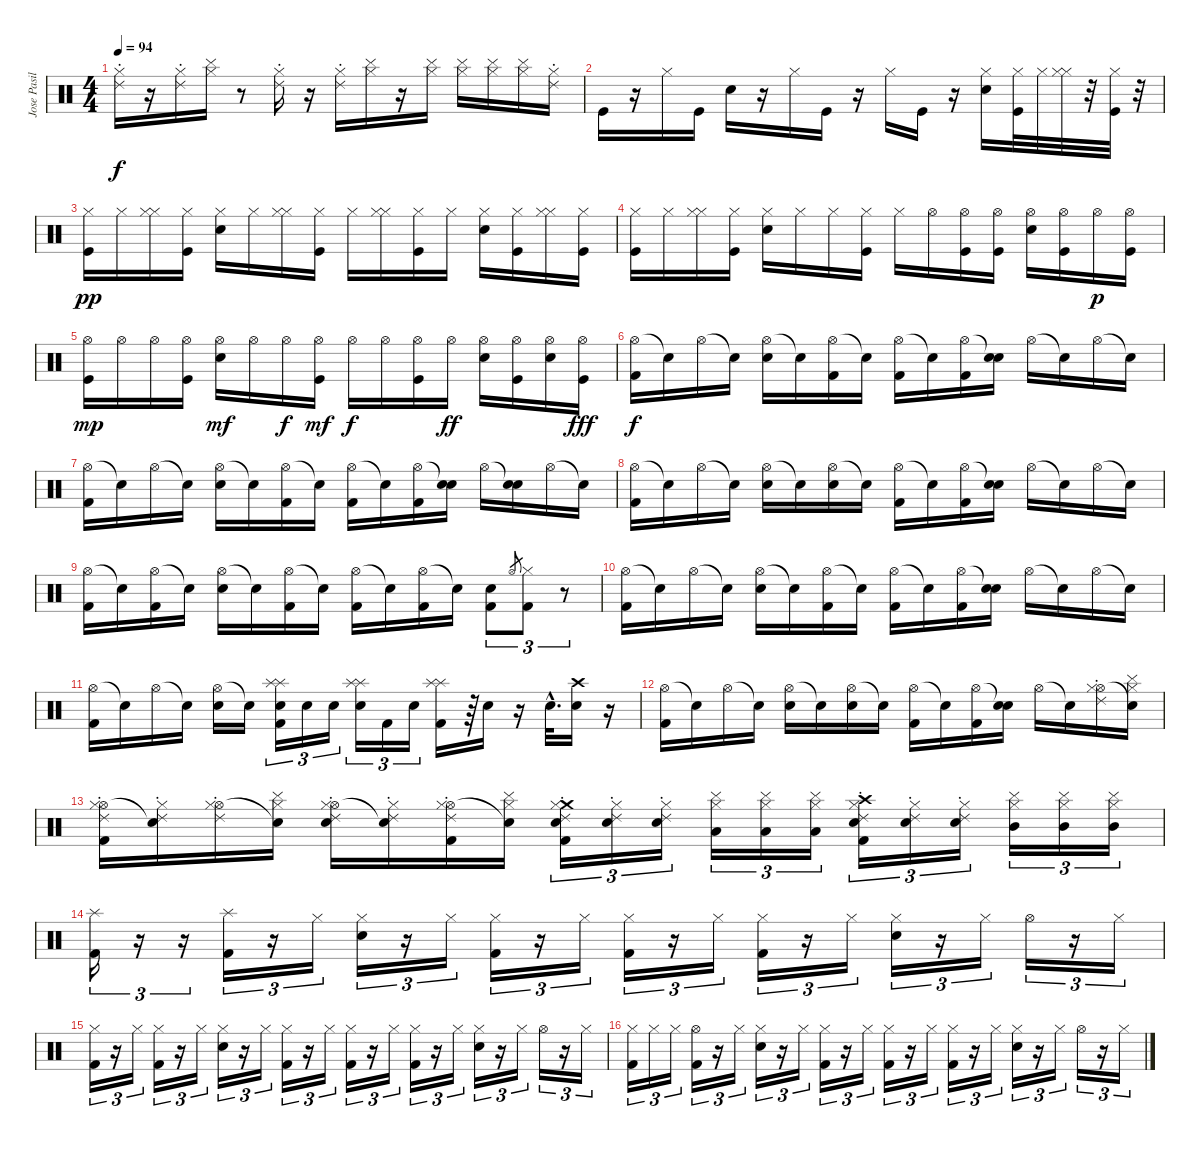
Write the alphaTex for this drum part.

\track ("Jose Pasillas" "Jose Pasil") {instrument percussion}
\staff {score}
\articulation defaults
\ts (4 4)
\tempo 94
\clef neutral
\ks c
("Ride (choke) 2" "Hi-Hat (closed)").16{dy f} r.16 ("Ride (choke) 2" "Hi-Hat (closed)").16 ("Cymbal (hit)" "Hi-Hat (closed)").16 r.8 ("Ride (choke) 2" "Hi-Hat (closed)").16 r.16 ("Ride (choke) 2" "Hi-Hat (closed)").16 ("Cymbal (hit)" "Hi-Hat (closed)").16 r.16 ("Cymbal (hit)" "Hi-Hat (closed)").16 ("Cymbal (hit)" "Hi-Hat (closed)").16 ("Cymbal (hit)" "Hi-Hat (closed)").16 ("Cymbal (hit)" "Hi-Hat (closed)").16 ("Ride (choke) 2" "Hi-Hat (closed)").16 |
"Kick (hit)".16 r.16 "Hi-Hat (closed)".16 "Kick (hit)".16 "Snare (hit) 2".16 r.16 "Hi-Hat (closed)".16 "Kick (hit)".16 r.16 "Hi-Hat (closed)".16 "Kick (hit)".16 r.16 ("Hi-Hat (closed)" "Snare (hit) 2").16 ("Hi-Hat (closed)" "Kick (hit)").32 "Hi-Hat (closed)".32 ("Hi-Hat (closed)" "Hi-Hat (closed)").32 r.32 ("Hi-Hat (closed)" "Kick (hit)").32 r.32 |
("Hi-Hat (closed)" "Kick (hit)").16{dy pp} "Hi-Hat (closed)".16 ("Hi-Hat (closed)" "Hi-Hat (closed)").16 ("Hi-Hat (closed)" "Kick (hit)").16 ("Hi-Hat (closed)" "Snare (hit) 2").16 "Hi-Hat (closed)".16 ("Hi-Hat (closed)" "Hi-Hat (closed)").16 ("Hi-Hat (closed)" "Kick (hit)").16 "Hi-Hat (closed)".16 ("Hi-Hat (closed)" "Hi-Hat (closed)").16 ("Hi-Hat (closed)" "Kick (hit)").16 "Hi-Hat (closed)".16 ("Hi-Hat (closed)" "Snare (hit) 2").16 ("Hi-Hat (closed)" "Kick (hit)").16 ("Hi-Hat (closed)" "Hi-Hat (closed)").16 ("Hi-Hat (closed)" "Kick (hit)").16 |
("Hi-Hat (closed)" "Kick (hit)").16 "Hi-Hat (closed)".16 ("Hi-Hat (closed)" "Hi-Hat (closed)").16 ("Hi-Hat (closed)" "Kick (hit)").16 ("Hi-Hat (closed)" "Snare (hit) 2").16 "Hi-Hat (closed)".16 "Hi-Hat (closed)".16 ("Hi-Hat (closed)" "Kick (hit)").16 "Hi-Hat (closed)".16 "Hi-Hat (open)".16 ("Hi-Hat (open)" "Kick (hit)").16 ("Hi-Hat (open)" "Kick (hit)").16 ("Hi-Hat (open)" "Snare (hit) 2").16 ("Hi-Hat (open)" "Kick (hit)").16 "Hi-Hat (open)".16{dy p} ("Hi-Hat (open)" "Kick (hit)").16 |
("Hi-Hat (open)" "Kick (hit)").16{dy mp} "Hi-Hat (open)".16 "Hi-Hat (open)".16 ("Hi-Hat (open)" "Kick (hit)").16 ("Hi-Hat (open)" "Snare (hit) 2").16{dy mf} "Hi-Hat (open)".16 "Hi-Hat (open)".16{dy f} ("Hi-Hat (open)" "Kick (hit)").16{dy mf} "Hi-Hat (open)".16{dy f} "Hi-Hat (open)".16 ("Hi-Hat (open)" "Kick (hit)").16 "Hi-Hat (open)".16{dy ff} ("Hi-Hat (open)" "Snare (hit) 2").16 ("Hi-Hat (open)" "Kick (hit)").16 ("Hi-Hat (open)" "Snare (hit) 2").16 ("Hi-Hat (open)" "Kick (hit)").16{dy fff} |
("Hi-Hat (open)" "Kick (hit) 2").16{dy f} "Snare (hit)"{t}.16 "Hi-Hat (open)".16 "Snare (hit)"{t}.16 ("Hi-Hat (open)" "Electric Snare (hit)").16 "Snare (hit)"{t}.16 ("Hi-Hat (open)" "Kick (hit) 2").16 "Snare (hit)"{t}.16 ("Hi-Hat (open)" "Kick (hit) 2").16 "Snare (hit)"{t}.16 ("Hi-Hat (open)" "Kick (hit) 2").16 ("Snare (hit)"{t} "Electric Snare (hit)").16 "Hi-Hat (open)".16 "Snare (hit)"{t}.16 "Hi-Hat (open)".16 "Snare (hit)"{t}.16 |
("Hi-Hat (open)" "Kick (hit) 2").16 "Snare (hit)"{t}.16 "Hi-Hat (open)".16 "Snare (hit)"{t}.16 ("Hi-Hat (open)" "Electric Snare (hit)").16 "Snare (hit)"{t}.16 ("Hi-Hat (open)" "Kick (hit) 2").16 "Snare (hit)"{t}.16 ("Hi-Hat (open)" "Kick (hit) 2").16 "Snare (hit)"{t}.16 ("Hi-Hat (open)" "Kick (hit) 2").16 ("Snare (hit)"{t} "Electric Snare (hit)").16 "Hi-Hat (open)".16 ("Snare (hit)"{t} "Electric Snare (hit)").16 "Hi-Hat (open)".16 "Snare (hit)"{t}.16 |
("Hi-Hat (open)" "Kick (hit) 2").16 "Snare (hit)"{t}.16 "Hi-Hat (open)".16 "Snare (hit)"{t}.16 ("Hi-Hat (open)" "Electric Snare (hit)").16 "Snare (hit)"{t}.16 ("Hi-Hat (open)" "Electric Snare (hit)").16 "Snare (hit)"{t}.16 ("Hi-Hat (open)" "Kick (hit) 2").16 "Snare (hit)"{t}.16 ("Hi-Hat (open)" "Kick (hit) 2").16 ("Snare (hit)"{t} "Electric Snare (hit)").16 "Hi-Hat (open)".16 "Snare (hit)"{t}.16 "Hi-Hat (open)".16 "Snare (hit)"{t}.16 |
("Hi-Hat (open)" "Kick (hit) 2").16 "Snare (hit)"{t}.16 ("Hi-Hat (open)" "Kick (hit) 2").16 "Snare (hit)"{t}.16 ("Hi-Hat (open)" "Electric Snare (hit)").16 "Snare (hit)"{t}.16 ("Hi-Hat (open)" "Kick (hit) 2").16 "Snare (hit)"{t}.16 ("Hi-Hat (open)" "Kick (hit) 2").16 "Snare (hit)"{t}.16 ("Hi-Hat (open)" "Kick (hit) 2").16 "Snare (hit)"{t}.16 ("Kick (hit) 2" "Electric Snare (hit)").8{tu (3 2)} "Hi-Hat (open)".8{gr} ("Hi-Hat (closed)" "Kick (hit) 2").8{tu (3 2)} r.8{tu (3 2)} |
("Hi-Hat (open)" "Kick (hit) 2").16 "Snare (hit)"{t}.16 "Hi-Hat (open)".16 "Snare (hit)"{t}.16 ("Hi-Hat (open)" "Electric Snare (hit)").16 "Snare (hit)"{t}.16 ("Hi-Hat (open)" "Kick (hit) 2").16 "Snare (hit)"{t}.16 ("Hi-Hat (open)" "Kick (hit) 2").16 "Snare (hit)"{t}.16 ("Hi-Hat (open)" "Kick (hit) 2").16 ("Snare (hit)"{t} "Electric Snare (hit)").16 "Hi-Hat (open)".16 "Snare (hit)"{t}.16 "Hi-Hat (open)".16 "Snare (hit)"{t}.16 |
("Hi-Hat (open)" "Kick (hit) 2").16 "Snare (hit)"{t}.16 "Hi-Hat (open)".16 "Snare (hit)"{t}.16 ("Hi-Hat (open)" "Electric Snare (hit)").16 "Snare (hit)"{t}.16 ("Splash (hit)" "Splash (hit)" "Electric Snare (hit)" "Kick (hit) 2").16{tu (3 2)} "Electric Snare (hit)".16{tu (3 2)} "Electric Snare (hit)".16{tu (3 2)} ("Splash (hit)" "Splash (hit)" "Electric Snare (hit)").16{tu (3 2)} "Kick (hit) 2".16{tu (3 2)} "Electric Snare (hit)".16{tu (3 2)} ("Splash (hit)" "Splash (hit)" "Kick (hit) 2").16 r.64 "Electric Snare (hit)".16 r.16 "Electric Snare (hit)"{hac}.32{d} ("Crash high (hit)" "Electric Snare (hit)").16 r.16 |
("Hi-Hat (open)" "Kick (hit) 2").16 "Snare (hit)"{t}.16 "Hi-Hat (open)".16 "Snare (hit)"{t}.16 ("Hi-Hat (open)" "Electric Snare (hit)").16 "Snare (hit)"{t}.16 ("Hi-Hat (open)" "Electric Snare (hit)").16 "Snare (hit)"{t}.16 ("Hi-Hat (open)" "Kick (hit) 2").16 "Snare (hit)"{t}.16 ("Hi-Hat (open)" "Kick (hit) 2").16 ("Snare (hit)"{t} "Electric Snare (hit)").16 "Hi-Hat (open)".16 "Snare (hit)"{t}.16 ("Hi-Hat (open)" "Ride (choke) 2" "Hi-Hat (closed)").16 ("Snare (hit)"{t} "Cymbal (hit)" "Hi-Hat (closed)").16 |
("Ride (choke) 2" "Hi-Hat (open)" "Hi-Hat (closed)" "Kick (hit) 2").16 ("Ride (choke) 2" "Snare (hit)"{t} "Hi-Hat (closed)").16 ("Ride (choke) 2" "Hi-Hat (open)" "Hi-Hat (closed)").16 ("Cymbal (hit)" "Snare (hit)"{t} "Hi-Hat (closed)").16 ("Ride (choke) 2" "Hi-Hat (open)" "Hi-Hat (closed)" "Electric Snare (hit)").16 ("Ride (choke) 2" "Snare (hit)"{t} "Hi-Hat (closed)").16 ("Ride (choke) 2" "Hi-Hat (open)" "Hi-Hat (closed)" "Kick (hit) 2").16 ("Cymbal (hit)" "Snare (hit)"{t} "Hi-Hat (closed)").16 ("Crash medium (hit)" "Ride (choke) 2" "Hi-Hat (closed)" "Electric Snare (hit)" "Kick (hit) 2").16{tu (3 2)} ("Ride (choke) 2" "Hi-Hat (closed)" "Electric Snare (hit)").16{tu (3 2)} ("Ride (choke) 2" "Hi-Hat (closed)" "Electric Snare (hit)").16{tu (3 2)} ("Cymbal (hit)" "Hi-Hat (closed)" "Low Tom (hit)").16{tu (3 2)} ("Cymbal (hit)" "Hi-Hat (closed)" "Low Tom (hit)").16{tu (3 2)} ("Cymbal (hit)" "Hi-Hat (closed)" "Low Tom (hit)").16{tu (3 2)} ("Crash high (hit)" "Ride (choke) 2" "Hi-Hat (closed)" "Electric Snare (hit)" "Kick (hit) 2").16{tu (3 2)} ("Ride (choke) 2" "Hi-Hat (closed)" "Electric Snare (hit)").16{tu (3 2)} ("Ride (choke) 2" "Hi-Hat (closed)" "Electric Snare (hit)").16{tu (3 2)} ("Cymbal (hit)" "Hi-Hat (closed)" "Mid Tom (hit)").16{tu (3 2)} ("Cymbal (hit)" "Hi-Hat (closed)" "Mid Tom (hit)").16{tu (3 2)} ("Cymbal (hit)" "Hi-Hat (closed)" "Mid Tom (hit)").16{tu (3 2)} |
("Splash (hit)" "Kick (hit) 2").16{tu (3 2)} r.16{tu (3 2)} r.16{tu (3 2)} ("Splash (hit)" "Kick (hit) 2").16{tu (3 2)} r.16{tu (3 2)} "Hi-Hat (closed)".16{tu (3 2)} ("Hi-Hat (closed)" "Electric Snare (hit)").16{tu (3 2)} r.16{tu (3 2)} "Hi-Hat (closed)".16{tu (3 2)} ("Hi-Hat (closed)" "Kick (hit) 2").16{tu (3 2)} r.16{tu (3 2)} "Hi-Hat (closed)".16{tu (3 2)} ("Hi-Hat (closed)" "Kick (hit) 2").16{tu (3 2)} r.16{tu (3 2)} "Hi-Hat (closed)".16{tu (3 2)} ("Hi-Hat (closed)" "Kick (hit) 2").16{tu (3 2)} r.16{tu (3 2)} "Hi-Hat (closed)".16{tu (3 2)} ("Hi-Hat (closed)" "Electric Snare (hit)").16{tu (3 2)} r.16{tu (3 2)} "Hi-Hat (closed)".16{tu (3 2)} "Hi-Hat (open)".16{tu (3 2)} r.16{tu (3 2)} "Hi-Hat (closed)".16{tu (3 2)} |
("Hi-Hat (closed)" "Kick (hit) 2").16{tu (3 2)} r.16{tu (3 2)} "Hi-Hat (closed)".16{tu (3 2)} ("Hi-Hat (closed)" "Kick (hit) 2").16{tu (3 2)} r.16{tu (3 2)} "Hi-Hat (closed)".16{tu (3 2)} ("Hi-Hat (closed)" "Electric Snare (hit)").16{tu (3 2)} r.16{tu (3 2)} "Hi-Hat (closed)".16{tu (3 2)} ("Hi-Hat (closed)" "Kick (hit) 2").16{tu (3 2)} r.16{tu (3 2)} "Hi-Hat (closed)".16{tu (3 2)} ("Hi-Hat (closed)" "Kick (hit) 2").16{tu (3 2)} r.16{tu (3 2)} "Hi-Hat (closed)".16{tu (3 2)} ("Hi-Hat (closed)" "Kick (hit) 2").16{tu (3 2)} r.16{tu (3 2)} "Hi-Hat (closed)".16{tu (3 2)} ("Hi-Hat (closed)" "Electric Snare (hit)").16{tu (3 2)} r.16{tu (3 2)} "Hi-Hat (closed)".16{tu (3 2)} "Hi-Hat (open)".16{tu (3 2)} r.16{tu (3 2)} "Hi-Hat (closed)".16{tu (3 2)} |
("Hi-Hat (closed)" "Kick (hit) 2").16{tu (3 2)} "Hi-Hat (closed)".16{tu (3 2)} "Hi-Hat (closed)".16{tu (3 2)} ("Hi-Hat (open)" "Kick (hit) 2").16{tu (3 2)} r.16{tu (3 2)} "Hi-Hat (closed)".16{tu (3 2)} ("Hi-Hat (closed)" "Electric Snare (hit)").16{tu (3 2)} r.16{tu (3 2)} "Hi-Hat (closed)".16{tu (3 2)} ("Hi-Hat (closed)" "Kick (hit) 2").16{tu (3 2)} r.16{tu (3 2)} "Hi-Hat (closed)".16{tu (3 2)} ("Hi-Hat (closed)" "Kick (hit) 2").16{tu (3 2)} r.16{tu (3 2)} "Hi-Hat (closed)".16{tu (3 2)} ("Hi-Hat (closed)" "Kick (hit) 2").16{tu (3 2)} r.16{tu (3 2)} "Hi-Hat (closed)".16{tu (3 2)} ("Hi-Hat (closed)" "Electric Snare (hit)").16{tu (3 2)} r.16{tu (3 2)} "Hi-Hat (closed)".16{tu (3 2)} "Hi-Hat (open)".16{tu (3 2)} r.16{tu (3 2)} "Hi-Hat (closed)".16{tu (3 2)}
